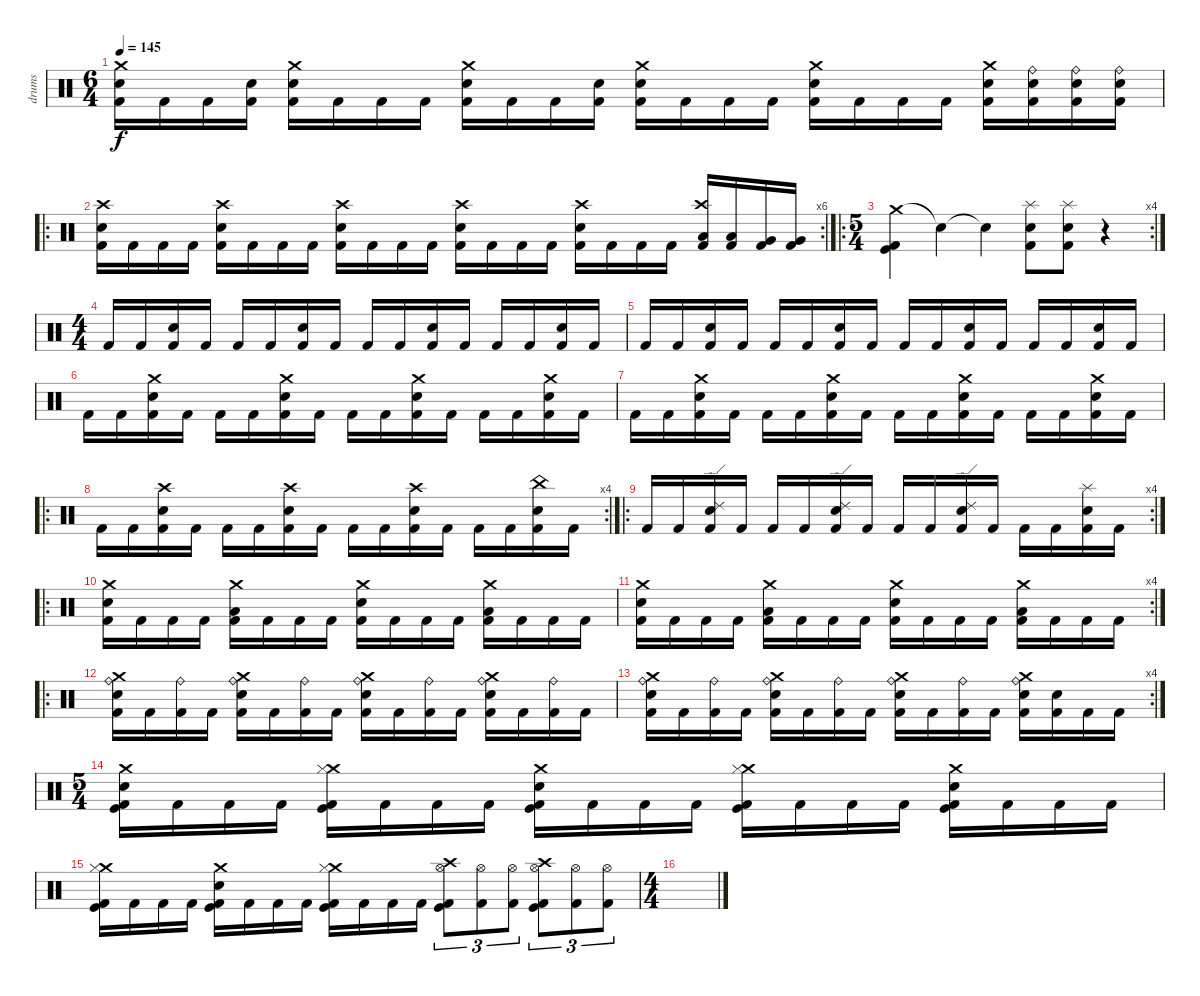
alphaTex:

\track ("drums" "drums") {instrument percussion}
\staff {score}
\articulation defaults
\ts (6 4)
\tempo 145
\clef neutral
\ks c
("Crash medium (hit)" "Electric Snare (hit)" "Kick (hit) 2").16{dy f} "Kick (hit) 2".16 "Kick (hit) 2".16 ("Electric Snare (hit)" "Kick (hit) 2").16 ("Crash medium (hit)" "Electric Snare (hit)" "Kick (hit) 2").16 "Kick (hit) 2".16 "Kick (hit) 2".16 "Kick (hit) 2".16 ("Crash medium (hit)" "Electric Snare (hit)" "Kick (hit) 2").16 "Kick (hit) 2".16 "Kick (hit) 2".16 ("Electric Snare (hit)" "Kick (hit) 2").16 ("Crash medium (hit)" "Electric Snare (hit)" "Kick (hit) 2").16 "Kick (hit) 2".16 "Kick (hit) 2".16 "Kick (hit) 2".16 ("Crash medium (hit)" "Electric Snare (hit)" "Kick (hit) 2").16 "Kick (hit) 2".16 "Kick (hit) 2".16 "Kick (hit) 2".16 ("Crash medium (hit)" "Electric Snare (hit)" "Kick (hit) 2").16 ("Ride (bell)" "Electric Snare (hit)" "Kick (hit) 2").16 ("Ride (bell)" "Electric Snare (hit)" "Kick (hit) 2").16 ("Ride (bell)" "Electric Snare (hit)" "Kick (hit) 2").16 |
\ro
\rc 6
("Crash high (hit)" "Electric Snare (hit)" "Kick (hit) 2").16 "Kick (hit) 2".16 "Kick (hit) 2".16 "Kick (hit) 2".16 ("Crash high (hit)" "Electric Snare (hit)" "Kick (hit) 2").16 "Kick (hit) 2".16 "Kick (hit) 2".16 "Kick (hit) 2".16 ("Crash high (hit)" "Electric Snare (hit)" "Kick (hit) 2").16 "Kick (hit) 2".16 "Kick (hit) 2".16 "Kick (hit) 2".16 ("Crash high (hit)" "Electric Snare (hit)" "Kick (hit) 2").16 "Kick (hit) 2".16 "Kick (hit) 2".16 "Kick (hit) 2".16 ("Crash high (hit)" "Electric Snare (hit)" "Kick (hit) 2").16 "Kick (hit) 2".16 "Kick (hit) 2".16 "Kick (hit) 2".16 ("Crash high (hit)" "Low Tom (hit)" "Kick (hit) 2").16 ("Low Tom (hit)" "Kick (hit) 2").16 ("Very Low Tom (hit)" "Kick (hit) 2").16 ("Very Low Tom (hit)" "Kick (hit) 2").16 |
\ro
\rc 4
\ts (5 4)
("Crash medium (hit)" "Kick (hit)" "Kick (hit) 2").4 "Snare (hit)"{t}.4 "Snare (hit)"{t}.4 ("Splash (hit)" "Electric Snare (hit)" "Kick (hit) 2").8 ("Splash (hit)" "Electric Snare (hit)" "Kick (hit) 2").8 r.4 |
\ts (4 4)
"Kick (hit) 2".16 "Kick (hit) 2".16 ("Electric Snare (hit)" "Kick (hit) 2").16 "Kick (hit) 2".16 "Kick (hit) 2".16 "Kick (hit) 2".16 ("Electric Snare (hit)" "Kick (hit) 2").16 "Kick (hit) 2".16 "Kick (hit) 2".16 "Kick (hit) 2".16 ("Electric Snare (hit)" "Kick (hit) 2").16 "Kick (hit) 2".16 "Kick (hit) 2".16 "Kick (hit) 2".16 ("Electric Snare (hit)" "Kick (hit) 2").16 "Kick (hit) 2".16 |
"Kick (hit) 2".16 "Kick (hit) 2".16 ("Electric Snare (hit)" "Kick (hit) 2").16 "Kick (hit) 2".16 "Kick (hit) 2".16 "Kick (hit) 2".16 ("Electric Snare (hit)" "Kick (hit) 2").16 "Kick (hit) 2".16 "Kick (hit) 2".16 "Kick (hit) 2".16 ("Electric Snare (hit)" "Kick (hit) 2").16 "Kick (hit) 2".16 "Kick (hit) 2".16 "Kick (hit) 2".16 ("Electric Snare (hit)" "Kick (hit) 2").16 "Kick (hit) 2".16 |
"Kick (hit) 2".16 "Kick (hit) 2".16 ("Electric Snare (hit)" "Crash medium (hit)" "Kick (hit) 2").16 "Kick (hit) 2".16 "Kick (hit) 2".16 "Kick (hit) 2".16 ("Electric Snare (hit)" "Crash medium (hit)" "Kick (hit) 2").16 "Kick (hit) 2".16 "Kick (hit) 2".16 "Kick (hit) 2".16 ("Electric Snare (hit)" "Crash medium (hit)" "Kick (hit) 2").16 "Kick (hit) 2".16 "Kick (hit) 2".16 "Kick (hit) 2".16 ("Electric Snare (hit)" "Crash medium (hit)" "Kick (hit) 2").16 "Kick (hit) 2".16 |
"Kick (hit) 2".16 "Kick (hit) 2".16 ("Electric Snare (hit)" "Crash medium (hit)" "Kick (hit) 2").16 "Kick (hit) 2".16 "Kick (hit) 2".16 "Kick (hit) 2".16 ("Electric Snare (hit)" "Crash medium (hit)" "Kick (hit) 2").16 "Kick (hit) 2".16 "Kick (hit) 2".16 "Kick (hit) 2".16 ("Electric Snare (hit)" "Crash medium (hit)" "Kick (hit) 2").16 "Kick (hit) 2".16 "Kick (hit) 2".16 "Kick (hit) 2".16 ("Electric Snare (hit)" "Crash medium (hit)" "Kick (hit) 2").16 "Kick (hit) 2".16 |
\ro
\rc 4 "Kick (hit) 2".16 "Kick (hit) 2".16
("Electric Snare (hit)" "Crash high (hit)" "Kick (hit) 2").16 "Kick (hit) 2".16 "Kick (hit) 2".16 "Kick (hit) 2".16 ("Electric Snare (hit)" "Crash high (hit)" "Kick (hit) 2").16 "Kick (hit) 2".16 "Kick (hit) 2".16 "Kick (hit) 2".16 ("Electric Snare (hit)" "Crash high (hit)" "Kick (hit) 2").16 "Kick (hit) 2".16 "Kick (hit) 2".16 "Kick (hit) 2".16 ("Electric Snare (hit)" "China (hit)" "Kick (hit) 2").16 "Kick (hit) 2".16 |
\ro
\rc 4 "Kick (hit) 2".16 "Kick (hit) 2".16
("Electric Snare (hit)" "Ride (edge) 2" "Kick (hit) 2").16 "Kick (hit) 2".16 "Kick (hit) 2".16 "Kick (hit) 2".16 ("Electric Snare (hit)" "Ride (edge) 2" "Kick (hit) 2").16 "Kick (hit) 2".16 "Kick (hit) 2".16 "Kick (hit) 2".16 ("Electric Snare (hit)" "Ride (edge) 2" "Kick (hit) 2").16 "Kick (hit) 2".16 "Kick (hit) 2".16 "Kick (hit) 2".16 ("Electric Snare (hit)" "Splash (hit)" "Kick (hit) 2").16 "Kick (hit) 2".16 |
\ro
("Crash medium (hit)" "Electric Snare (hit)" "Kick (hit) 2").16 "Kick (hit) 2".16 "Kick (hit) 2".16 "Kick (hit) 2".16 ("Crash medium (hit)" "Low Floor Tom (hit)" "Kick (hit) 2").16 "Kick (hit) 2".16 "Kick (hit) 2".16 "Kick (hit) 2".16 ("Crash medium (hit)" "Electric Snare (hit)" "Kick (hit) 2").16 "Kick (hit) 2".16 "Kick (hit) 2".16 "Kick (hit) 2".16 ("Crash medium (hit)" "Low Floor Tom (hit)" "Kick (hit) 2").16 "Kick (hit) 2".16 "Kick (hit) 2".16 "Kick (hit) 2".16 |
\rc 4
("Crash medium (hit)" "Electric Snare (hit)" "Kick (hit) 2").16 "Kick (hit) 2".16 "Kick (hit) 2".16 "Kick (hit) 2".16 ("Crash medium (hit)" "Low Floor Tom (hit)" "Kick (hit) 2").16 "Kick (hit) 2".16 "Kick (hit) 2".16 "Kick (hit) 2".16 ("Crash medium (hit)" "Electric Snare (hit)" "Kick (hit) 2").16 "Kick (hit) 2".16 "Kick (hit) 2".16 "Kick (hit) 2".16 ("Crash medium (hit)" "Low Floor Tom (hit)" "Kick (hit) 2").16 "Kick (hit) 2".16 "Kick (hit) 2".16 "Kick (hit) 2".16 |
\ro
("Ride (bell)" "Electric Snare (hit)" "Crash medium (hit)" "Kick (hit) 2").16 "Kick (hit) 2".16 ("Ride (bell)" "Kick (hit) 2").16 "Kick (hit) 2".16 ("Ride (bell)" "Electric Snare (hit)" "Crash medium (hit)" "Kick (hit) 2").16 "Kick (hit) 2".16 ("Ride (bell)" "Kick (hit) 2").16 "Kick (hit) 2".16 ("Ride (bell)" "Electric Snare (hit)" "Crash medium (hit)" "Kick (hit) 2").16 "Kick (hit) 2".16 ("Ride (bell)" "Kick (hit) 2").16 "Kick (hit) 2".16 ("Ride (bell)" "Electric Snare (hit)" "Crash medium (hit)" "Kick (hit) 2").16 "Kick (hit) 2".16 ("Ride (bell)" "Kick (hit) 2").16 "Kick (hit) 2".16 |
\rc 4
("Ride (bell)" "Electric Snare (hit)" "Crash medium (hit)" "Kick (hit) 2").16 "Kick (hit) 2".16 ("Ride (bell)" "Kick (hit) 2").16 "Kick (hit) 2".16 ("Ride (bell)" "Electric Snare (hit)" "Crash medium (hit)" "Kick (hit) 2").16 "Kick (hit) 2".16 ("Ride (bell)" "Kick (hit) 2").16 "Kick (hit) 2".16 ("Ride (bell)" "Electric Snare (hit)" "Crash medium (hit)" "Kick (hit) 2").16 "Kick (hit) 2".16 ("Ride (bell)" "Kick (hit) 2").16 "Kick (hit) 2".16 ("Ride (bell)" "Electric Snare (hit)" "Crash medium (hit)" "Kick (hit) 2").16 ("Electric Snare (hit)" "Kick (hit) 2").16 "Kick (hit) 2".16 "Kick (hit) 2".16 |
\ts (5 4)
("Crash medium (hit)" "Electric Snare (hit)" "Kick (hit)" "Kick (hit) 2").16 "Kick (hit) 2".16 "Kick (hit) 2".16 "Kick (hit) 2".16 ("Crash medium (hit)" "Hi-Hat (closed)" "Kick (hit)" "Kick (hit) 2").16 "Kick (hit) 2".16 "Kick (hit) 2".16 "Kick (hit) 2".16 ("Crash medium (hit)" "Electric Snare (hit)" "Kick (hit)" "Kick (hit) 2").16 "Kick (hit) 2".16 "Kick (hit) 2".16 "Kick (hit) 2".16 ("Crash medium (hit)" "Hi-Hat (closed)" "Kick (hit)" "Kick (hit) 2").16 "Kick (hit) 2".16 "Kick (hit) 2".16 "Kick (hit) 2".16 ("Crash medium (hit)" "Electric Snare (hit)" "Kick (hit)" "Kick (hit) 2").16 "Kick (hit) 2".16 "Kick (hit) 2".16 "Kick (hit) 2".16 |
("Crash medium (hit)" "Hi-Hat (closed)" "Kick (hit)" "Kick (hit) 2").16 "Kick (hit) 2".16 "Kick (hit) 2".16 "Kick (hit) 2".16 ("Crash medium (hit)" "Electric Snare (hit)" "Kick (hit)" "Kick (hit) 2").16 "Kick (hit) 2".16 "Kick (hit) 2".16 "Kick (hit) 2".16 ("Crash medium (hit)" "Hi-Hat (closed)" "Kick (hit)" "Kick (hit) 2").16 "Kick (hit) 2".16 "Kick (hit) 2".16 "Kick (hit) 2".16 ("Hi-Hat (open)" "Crash high (hit)" "Kick (hit)" "Kick (hit) 2").8{tu (3 2)} ("Hi-Hat (open)" "Kick (hit) 2").8{tu (3 2)} ("Hi-Hat (open)" "Kick (hit) 2").8{tu (3 2)} ("Hi-Hat (open)" "Crash high (hit)" "Kick (hit)" "Kick (hit) 2").8{tu (3 2)} ("Hi-Hat (open)" "Kick (hit) 2").8{tu (3 2)} ("Hi-Hat (open)" "Kick (hit) 2").8{tu (3 2)} |
\ts (4 4)
